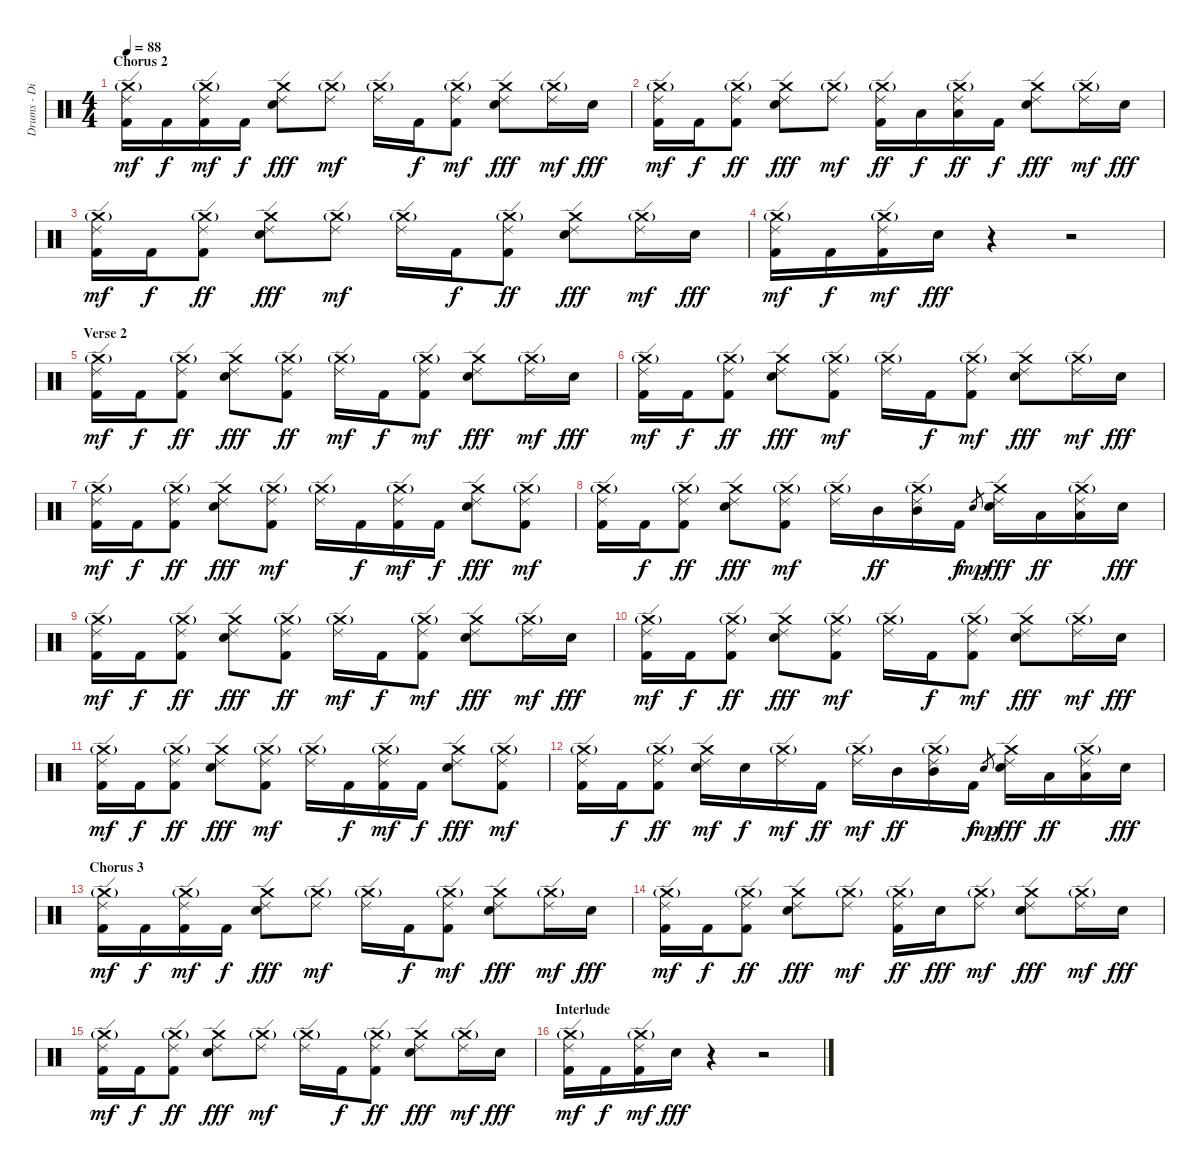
\track ("Drums - Dino Campanella" "Drums - Di") {instrument percussion}
\staff {score}
\articulation defaults
\ts (4 4)
\section ("" "Chorus 2")
\tempo 88
\clef neutral
\ks c
("Crash medium (hit)"{g} "Ride (edge) 2" "Kick (hit) 2").16{dy mf} "Kick (hit) 2".16{dy f} ("Crash medium (hit)"{g} "Ride (edge) 2" "Kick (hit) 2").16{dy mf} "Kick (hit) 2".16{dy f} ("Crash medium (hit)" "Ride (edge) 2" "Electric Snare (hit)").8{dy fff} ("Crash medium (hit)"{g} "Ride (edge) 2").8{dy mf} ("Crash medium (hit)"{g} "Ride (edge) 2").16 "Kick (hit) 2".16{dy f} ("Crash medium (hit)"{g} "Ride (edge) 2" "Kick (hit) 2").8{dy mf} ("Crash medium (hit)" "Ride (edge) 2" "Electric Snare (hit)").8{dy fff} ("Crash medium (hit)"{g} "Ride (edge) 2").16{dy mf} "Electric Snare (hit)".16{dy fff} |
("Crash medium (hit)"{g} "Ride (edge) 2" "Kick (hit) 2").16{dy mf} "Kick (hit) 2".16{dy f} ("Crash medium (hit)"{g} "Ride (edge) 2" "Kick (hit) 2").8{dy ff} ("Crash medium (hit)" "Ride (edge) 2" "Electric Snare (hit)").8{dy fff} ("Crash medium (hit)"{g} "Ride (edge) 2").8{dy mf} ("Crash medium (hit)"{g} "Ride (edge) 2" "Kick (hit) 2").16{dy ff} "Low Tom (hit)".16{dy f} ("Crash medium (hit)"{g} "Ride (edge) 2" "Low Tom (hit)").16{dy ff} "Kick (hit) 2".16{dy f} ("Crash medium (hit)" "Ride (edge) 2" "Electric Snare (hit)").8{dy fff} ("Crash medium (hit)"{g} "Ride (edge) 2").16{dy mf} "Electric Snare (hit)".16{dy fff} |
("Crash medium (hit)"{g} "Ride (edge) 2" "Kick (hit) 2").16{dy mf} "Kick (hit) 2".16{dy f} ("Crash medium (hit)"{g} "Ride (edge) 2" "Kick (hit) 2").8{dy ff} ("Crash medium (hit)" "Ride (edge) 2" "Electric Snare (hit)").8{dy fff} ("Crash medium (hit)"{g} "Ride (edge) 2").8{dy mf} ("Crash medium (hit)"{g} "Ride (edge) 2").16 "Kick (hit) 2".16{dy f} ("Crash medium (hit)"{g} "Ride (edge) 2" "Kick (hit) 2").8{dy ff} ("Crash medium (hit)" "Ride (edge) 2" "Electric Snare (hit)").8{dy fff} ("Crash medium (hit)"{g} "Ride (edge) 2").16{dy mf} "Electric Snare (hit)".16{dy fff} |
("Crash medium (hit)"{g} "Ride (edge) 2" "Kick (hit) 2").16{dy mf} "Kick (hit) 2".16{dy f} ("Crash medium (hit)"{g} "Ride (edge) 2" "Kick (hit) 2").16{dy mf} "Electric Snare (hit)".16{dy fff} r.4 r.2 |
\section ("" "Verse 2")
("Crash medium (hit)"{g} "Ride (edge) 2" "Kick (hit) 2").16{dy mf} "Kick (hit) 2".16{dy f} ("Crash medium (hit)"{g} "Ride (edge) 2" "Kick (hit) 2").8{dy ff} ("Crash medium (hit)" "Ride (edge) 2" "Electric Snare (hit)").8{dy fff} ("Crash medium (hit)"{g} "Ride (edge) 2" "Kick (hit) 2").8{dy ff} ("Crash medium (hit)"{g} "Ride (edge) 2").16{dy mf} "Kick (hit) 2".16{dy f} ("Crash medium (hit)"{g} "Ride (edge) 2" "Kick (hit) 2").8{dy mf} ("Crash medium (hit)" "Ride (edge) 2" "Electric Snare (hit)").8{dy fff} ("Crash medium (hit)"{g} "Ride (edge) 2").16{dy mf} "Electric Snare (hit)".16{dy fff} |
("Crash medium (hit)"{g} "Ride (edge) 2" "Kick (hit) 2").16{dy mf} "Kick (hit) 2".16{dy f} ("Crash medium (hit)"{g} "Ride (edge) 2" "Kick (hit) 2").8{dy ff} ("Crash medium (hit)" "Ride (edge) 2" "Electric Snare (hit)").8{dy fff} ("Crash medium (hit)"{g} "Ride (edge) 2" "Kick (hit) 2").8{dy mf} ("Crash medium (hit)"{g} "Ride (edge) 2").16 "Kick (hit) 2".16{dy f} ("Crash medium (hit)"{g} "Ride (edge) 2" "Kick (hit) 2").8{dy mf} ("Crash medium (hit)" "Ride (edge) 2" "Electric Snare (hit)").8{dy fff} ("Crash medium (hit)"{g} "Ride (edge) 2").16{dy mf} "Electric Snare (hit)".16{dy fff} |
("Crash medium (hit)"{g} "Ride (edge) 2" "Kick (hit) 2").16{dy mf} "Kick (hit) 2".16{dy f} ("Crash medium (hit)"{g} "Ride (edge) 2" "Kick (hit) 2").8{dy ff} ("Crash medium (hit)" "Ride (edge) 2" "Electric Snare (hit)").8{dy fff} ("Crash medium (hit)"{g} "Ride (edge) 2" "Kick (hit) 2").8{dy mf} ("Crash medium (hit)"{g} "Ride (edge) 2").16 "Kick (hit) 2".16{dy f} ("Crash medium (hit)"{g} "Ride (edge) 2" "Kick (hit) 2").16{dy mf} "Kick (hit) 2".16{dy f} ("Crash medium (hit)" "Ride (edge) 2" "Electric Snare (hit)").8{dy fff} ("Crash medium (hit)"{g} "Ride (edge) 2" "Kick (hit) 2").8{dy mf} |
("Crash medium (hit)"{g} "Ride (edge) 2" "Kick (hit) 2").16 "Kick (hit) 2".16{dy f} ("Crash medium (hit)"{g} "Ride (edge) 2" "Kick (hit) 2").8{dy ff} ("Crash medium (hit)" "Ride (edge) 2" "Electric Snare (hit)").8{dy fff} ("Crash medium (hit)"{g} "Ride (edge) 2" "Kick (hit) 2").8{dy mf} ("Crash medium (hit)"{g} "Ride (edge) 2").16 "Mid Tom (hit)".16{dy ff} ("Crash medium (hit)"{g} "Ride (edge) 2" "Mid Tom (hit)").16 "Kick (hit) 2".16{dy f} "Electric Snare (hit)".8{gr dy mp} ("Crash medium (hit)" "Ride (edge) 2" "Electric Snare (hit)").16{dy fff} "Low Tom (hit)".16{dy ff} ("Crash medium (hit)"{g} "Ride (edge) 2" "Low Tom (hit)").16 "Electric Snare (hit)".16{dy fff} |
("Crash medium (hit)"{g} "Ride (edge) 2" "Kick (hit) 2").16{dy mf} "Kick (hit) 2".16{dy f} ("Crash medium (hit)"{g} "Ride (edge) 2" "Kick (hit) 2").8{dy ff} ("Crash medium (hit)" "Ride (edge) 2" "Electric Snare (hit)").8{dy fff} ("Crash medium (hit)"{g} "Ride (edge) 2" "Kick (hit) 2").8{dy ff} ("Crash medium (hit)"{g} "Ride (edge) 2").16{dy mf} "Kick (hit) 2".16{dy f} ("Crash medium (hit)"{g} "Ride (edge) 2" "Kick (hit) 2").8{dy mf} ("Crash medium (hit)" "Ride (edge) 2" "Electric Snare (hit)").8{dy fff} ("Crash medium (hit)"{g} "Ride (edge) 2").16{dy mf} "Electric Snare (hit)".16{dy fff} |
("Crash medium (hit)"{g} "Ride (edge) 2" "Kick (hit) 2").16{dy mf} "Kick (hit) 2".16{dy f} ("Crash medium (hit)"{g} "Ride (edge) 2" "Kick (hit) 2").8{dy ff} ("Crash medium (hit)" "Ride (edge) 2" "Electric Snare (hit)").8{dy fff} ("Crash medium (hit)"{g} "Ride (edge) 2" "Kick (hit) 2").8{dy mf} ("Crash medium (hit)"{g} "Ride (edge) 2").16 "Kick (hit) 2".16{dy f} ("Crash medium (hit)"{g} "Ride (edge) 2" "Kick (hit) 2").8{dy mf} ("Crash medium (hit)" "Ride (edge) 2" "Electric Snare (hit)").8{dy fff} ("Crash medium (hit)"{g} "Ride (edge) 2").16{dy mf} "Electric Snare (hit)".16{dy fff} |
("Crash medium (hit)"{g} "Ride (edge) 2" "Kick (hit) 2").16{dy mf} "Kick (hit) 2".16{dy f} ("Crash medium (hit)"{g} "Ride (edge) 2" "Kick (hit) 2").8{dy ff} ("Crash medium (hit)" "Ride (edge) 2" "Electric Snare (hit)").8{dy fff} ("Crash medium (hit)"{g} "Ride (edge) 2" "Kick (hit) 2").8{dy mf} ("Crash medium (hit)"{g} "Ride (edge) 2").16 "Kick (hit) 2".16{dy f} ("Crash medium (hit)"{g} "Ride (edge) 2" "Kick (hit) 2").16{dy mf} "Kick (hit) 2".16{dy f} ("Crash medium (hit)" "Ride (edge) 2" "Electric Snare (hit)").8{dy fff} ("Crash medium (hit)"{g} "Ride (edge) 2" "Kick (hit) 2").8{dy mf} |
("Crash medium (hit)"{g} "Ride (edge) 2" "Kick (hit) 2").16 "Kick (hit) 2".16{dy f} ("Crash medium (hit)"{g} "Ride (edge) 2" "Kick (hit) 2").8{dy ff} ("Crash medium (hit)" "Ride (edge) 2" "Electric Snare (hit)").16{dy mf} "Electric Snare (hit)".16{dy f} ("Crash medium (hit)"{g} "Ride (edge) 2").16{dy mf} "Kick (hit) 2".16{dy ff} ("Crash medium (hit)"{g} "Ride (edge) 2").16{dy mf} "Mid Tom (hit)".16{dy ff} ("Crash medium (hit)"{g} "Ride (edge) 2" "Mid Tom (hit)").16 "Kick (hit) 2".16{dy f} "Electric Snare (hit)".8{gr dy mp} ("Crash medium (hit)" "Ride (edge) 2" "Electric Snare (hit)").16{dy fff} "Low Tom (hit)".16{dy ff} ("Crash medium (hit)"{g} "Ride (edge) 2" "Low Tom (hit)").16 "Electric Snare (hit)".16{dy fff} |
\section ("" "Chorus 3")
("Crash medium (hit)"{g} "Ride (edge) 2" "Kick (hit) 2").16{dy mf} "Kick (hit) 2".16{dy f} ("Crash medium (hit)"{g} "Ride (edge) 2" "Kick (hit) 2").16{dy mf} "Kick (hit) 2".16{dy f} ("Crash medium (hit)" "Ride (edge) 2" "Electric Snare (hit)").8{dy fff} ("Crash medium (hit)"{g} "Ride (edge) 2").8{dy mf} ("Crash medium (hit)"{g} "Ride (edge) 2").16 "Kick (hit) 2".16{dy f} ("Crash medium (hit)"{g} "Ride (edge) 2" "Kick (hit) 2").8{dy mf} ("Crash medium (hit)" "Ride (edge) 2" "Electric Snare (hit)").8{dy fff} ("Crash medium (hit)"{g} "Ride (edge) 2").16{dy mf} "Electric Snare (hit)".16{dy fff} |
("Crash medium (hit)"{g} "Ride (edge) 2" "Kick (hit) 2").16{dy mf} "Kick (hit) 2".16{dy f} ("Crash medium (hit)"{g} "Ride (edge) 2" "Kick (hit) 2").8{dy ff} ("Crash medium (hit)" "Ride (edge) 2" "Electric Snare (hit)").8{dy fff} ("Crash medium (hit)"{g} "Ride (edge) 2").8{dy mf} ("Crash medium (hit)"{g} "Ride (edge) 2" "Kick (hit) 2").16{dy ff} "Electric Snare (hit)".16{dy fff} ("Crash medium (hit)"{g} "Ride (edge) 2").8{dy mf} ("Crash medium (hit)" "Ride (edge) 2" "Electric Snare (hit)").8{dy fff} ("Crash medium (hit)"{g} "Ride (edge) 2").16{dy mf} "Electric Snare (hit)".16{dy fff} |
("Crash medium (hit)"{g} "Ride (edge) 2" "Kick (hit) 2").16{dy mf} "Kick (hit) 2".16{dy f} ("Crash medium (hit)"{g} "Ride (edge) 2" "Kick (hit) 2").8{dy ff} ("Crash medium (hit)" "Ride (edge) 2" "Electric Snare (hit)").8{dy fff} ("Crash medium (hit)"{g} "Ride (edge) 2").8{dy mf} ("Crash medium (hit)"{g} "Ride (edge) 2").16 "Kick (hit) 2".16{dy f} ("Crash medium (hit)"{g} "Ride (edge) 2" "Kick (hit) 2").8{dy ff} ("Crash medium (hit)" "Ride (edge) 2" "Electric Snare (hit)").8{dy fff} ("Crash medium (hit)"{g} "Ride (edge) 2").16{dy mf} "Electric Snare (hit)".16{dy fff} |
\section ("" "Interlude")
("Crash medium (hit)"{g} "Ride (edge) 2" "Kick (hit) 2").16{dy mf} "Kick (hit) 2".16{dy f} ("Crash medium (hit)"{g} "Ride (edge) 2" "Kick (hit) 2").16{dy mf} "Electric Snare (hit)".16{dy fff} r.4 r.2
